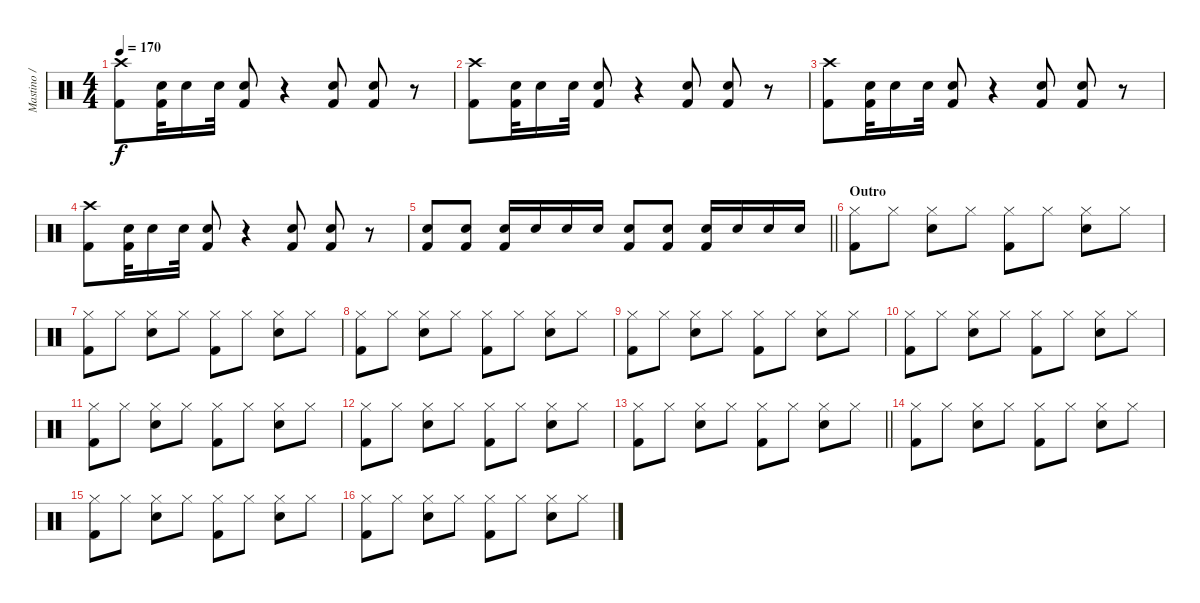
\track ("Mastino / Drums" "Mastino / ") {instrument percussion}
\staff {score}
\articulation defaults
\ts (4 4)
\tempo 170
\clef neutral
\ks c
("Crash high (hit)" "Kick (hit) 2").8{dy f} ("Electric Snare (hit)" "Kick (hit) 2").32 "Electric Snare (hit)".16 "Electric Snare (hit)".32 ("Electric Snare (hit)" "Kick (hit) 2").8 r.4 ("Electric Snare (hit)" "Kick (hit) 2").8 ("Electric Snare (hit)" "Kick (hit) 2").8 r.8 |
("Crash high (hit)" "Kick (hit) 2").8 ("Electric Snare (hit)" "Kick (hit) 2").32 "Electric Snare (hit)".16 "Electric Snare (hit)".32 ("Electric Snare (hit)" "Kick (hit) 2").8 r.4 ("Electric Snare (hit)" "Kick (hit) 2").8 ("Electric Snare (hit)" "Kick (hit) 2").8 r.8 |
("Crash high (hit)" "Kick (hit) 2").8 ("Electric Snare (hit)" "Kick (hit) 2").32 "Electric Snare (hit)".16 "Electric Snare (hit)".32 ("Electric Snare (hit)" "Kick (hit) 2").8 r.4 ("Electric Snare (hit)" "Kick (hit) 2").8 ("Electric Snare (hit)" "Kick (hit) 2").8 r.8 |
("Crash high (hit)" "Kick (hit) 2").8 ("Electric Snare (hit)" "Kick (hit) 2").32 "Electric Snare (hit)".16 "Electric Snare (hit)".32 ("Electric Snare (hit)" "Kick (hit) 2").8 r.4 ("Electric Snare (hit)" "Kick (hit) 2").8 ("Electric Snare (hit)" "Kick (hit) 2").8 r.8 |
\barLineRight lightlight
("Electric Snare (hit)" "Kick (hit) 2").8 ("Electric Snare (hit)" "Kick (hit) 2").8 ("Electric Snare (hit)" "Kick (hit) 2").16 "Electric Snare (hit)".16 "Electric Snare (hit)".16 "Electric Snare (hit)".16 ("Electric Snare (hit)" "Kick (hit) 2").8 ("Electric Snare (hit)" "Kick (hit) 2").8 ("Electric Snare (hit)" "Kick (hit) 2").16 "Electric Snare (hit)".16 "Electric Snare (hit)".16 "Electric Snare (hit)".16 |
\section ("" "Outro")
("Hi-Hat (closed)" "Kick (hit) 2").8 "Hi-Hat (closed)".8 ("Hi-Hat (closed)" "Electric Snare (hit)").8 "Hi-Hat (closed)".8 ("Hi-Hat (closed)" "Kick (hit) 2").8 "Hi-Hat (closed)".8 ("Hi-Hat (closed)" "Electric Snare (hit)").8 "Hi-Hat (closed)".8 |
("Hi-Hat (closed)" "Kick (hit) 2").8 "Hi-Hat (closed)".8 ("Hi-Hat (closed)" "Electric Snare (hit)").8 "Hi-Hat (closed)".8 ("Hi-Hat (closed)" "Kick (hit) 2").8 "Hi-Hat (closed)".8 ("Hi-Hat (closed)" "Electric Snare (hit)").8 "Hi-Hat (closed)".8 |
("Hi-Hat (closed)" "Kick (hit) 2").8 "Hi-Hat (closed)".8 ("Hi-Hat (closed)" "Electric Snare (hit)").8 "Hi-Hat (closed)".8 ("Hi-Hat (closed)" "Kick (hit) 2").8 "Hi-Hat (closed)".8 ("Hi-Hat (closed)" "Electric Snare (hit)").8 "Hi-Hat (closed)".8 |
("Hi-Hat (closed)" "Kick (hit) 2").8 "Hi-Hat (closed)".8 ("Hi-Hat (closed)" "Electric Snare (hit)").8 "Hi-Hat (closed)".8 ("Hi-Hat (closed)" "Kick (hit) 2").8 "Hi-Hat (closed)".8 ("Hi-Hat (closed)" "Electric Snare (hit)").8 "Hi-Hat (closed)".8 |
("Hi-Hat (closed)" "Kick (hit) 2").8 "Hi-Hat (closed)".8 ("Hi-Hat (closed)" "Electric Snare (hit)").8 "Hi-Hat (closed)".8 ("Hi-Hat (closed)" "Kick (hit) 2").8 "Hi-Hat (closed)".8 ("Hi-Hat (closed)" "Electric Snare (hit)").8 "Hi-Hat (closed)".8 |
("Hi-Hat (closed)" "Kick (hit) 2").8 "Hi-Hat (closed)".8 ("Hi-Hat (closed)" "Electric Snare (hit)").8 "Hi-Hat (closed)".8 ("Hi-Hat (closed)" "Kick (hit) 2").8 "Hi-Hat (closed)".8 ("Hi-Hat (closed)" "Electric Snare (hit)").8 "Hi-Hat (closed)".8 |
("Hi-Hat (closed)" "Kick (hit) 2").8 "Hi-Hat (closed)".8 ("Hi-Hat (closed)" "Electric Snare (hit)").8 "Hi-Hat (closed)".8 ("Hi-Hat (closed)" "Kick (hit) 2").8 "Hi-Hat (closed)".8 ("Hi-Hat (closed)" "Electric Snare (hit)").8 "Hi-Hat (closed)".8 |
\barLineRight lightlight
("Hi-Hat (closed)" "Kick (hit) 2").8 "Hi-Hat (closed)".8 ("Hi-Hat (closed)" "Electric Snare (hit)").8 "Hi-Hat (closed)".8 ("Hi-Hat (closed)" "Kick (hit) 2").8 "Hi-Hat (closed)".8 ("Hi-Hat (closed)" "Electric Snare (hit)").8 "Hi-Hat (closed)".8 |
("Hi-Hat (closed)" "Kick (hit) 2").8 "Hi-Hat (closed)".8 ("Hi-Hat (closed)" "Electric Snare (hit)").8 "Hi-Hat (closed)".8 ("Hi-Hat (closed)" "Kick (hit) 2").8 "Hi-Hat (closed)".8 ("Hi-Hat (closed)" "Electric Snare (hit)").8 "Hi-Hat (closed)".8 |
("Hi-Hat (closed)" "Kick (hit) 2").8 "Hi-Hat (closed)".8 ("Hi-Hat (closed)" "Electric Snare (hit)").8 "Hi-Hat (closed)".8 ("Hi-Hat (closed)" "Kick (hit) 2").8 "Hi-Hat (closed)".8 ("Hi-Hat (closed)" "Electric Snare (hit)").8 "Hi-Hat (closed)".8 |
("Hi-Hat (closed)" "Kick (hit) 2").8 "Hi-Hat (closed)".8 ("Hi-Hat (closed)" "Electric Snare (hit)").8 "Hi-Hat (closed)".8 ("Hi-Hat (closed)" "Kick (hit) 2").8 "Hi-Hat (closed)".8 ("Hi-Hat (closed)" "Electric Snare (hit)").8 "Hi-Hat (closed)".8
